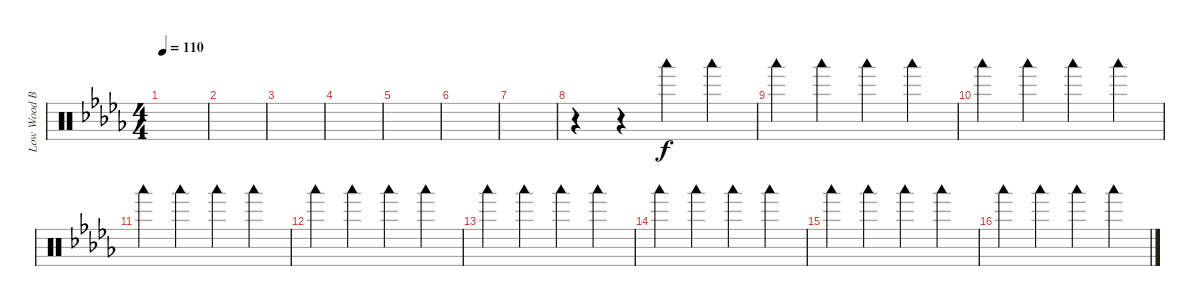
\track ("Low Wood Blick / Side Stick" "Low Wood B") {instrument percussion}
\staff {score}
\articulation defaults
\ts (4 4)
\tempo 110
\clef neutral
\ks db
|
|
|
|
|
|
|
r.4 r.4 "Woodblock low (hit)".4 "Woodblock low (hit)".4 |
"Woodblock low (hit)".4 "Woodblock low (hit)".4 "Woodblock low (hit)".4 "Woodblock low (hit)".4 |
"Woodblock low (hit)".4 "Woodblock low (hit)".4 "Woodblock low (hit)".4 "Woodblock low (hit)".4 |
"Woodblock low (hit)".4 "Woodblock low (hit)".4 "Woodblock low (hit)".4 "Woodblock low (hit)".4 |
"Woodblock low (hit)".4 "Woodblock low (hit)".4 "Woodblock low (hit)".4 "Woodblock low (hit)".4 |
"Woodblock low (hit)".4 "Woodblock low (hit)".4 "Woodblock low (hit)".4 "Woodblock low (hit)".4 |
"Woodblock low (hit)".4 "Woodblock low (hit)".4 "Woodblock low (hit)".4 "Woodblock low (hit)".4 |
"Woodblock low (hit)".4 "Woodblock low (hit)".4 "Woodblock low (hit)".4 "Woodblock low (hit)".4 |
"Woodblock low (hit)".4 "Woodblock low (hit)".4 "Woodblock low (hit)".4 "Woodblock low (hit)".4
